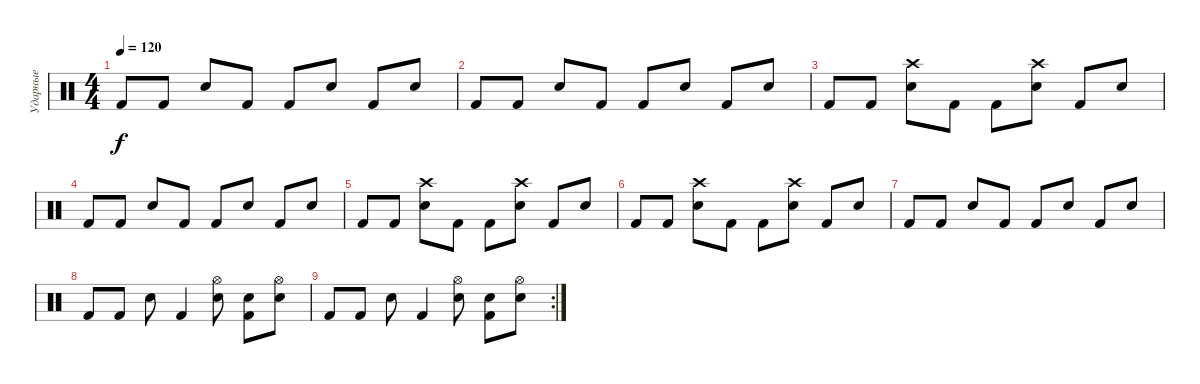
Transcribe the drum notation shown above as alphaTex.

\track ("Ударные" "Ударные") {instrument percussion}
\staff {score}
\articulation defaults
\ts (4 4)
\tempo 120
\clef neutral
\ks c "Kick (hit) 2".8{dy f} "Kick (hit) 2".8 "Snare (hit) 2".8 "Kick (hit) 2".8 "Kick (hit) 2".8 "Snare (hit) 2".8 "Kick (hit) 2".8 "Snare (hit) 2".8
|
"Kick (hit) 2".8 "Kick (hit) 2".8 "Snare (hit) 2".8 "Kick (hit) 2".8 "Kick (hit) 2".8 "Snare (hit) 2".8 "Kick (hit) 2".8 "Snare (hit) 2".8 |
"Kick (hit) 2".8 "Kick (hit) 2".8 ("Crash high (hit)" "Snare (hit) 2").8 "Kick (hit) 2".8 "Kick (hit) 2".8 ("Crash high (hit)" "Snare (hit) 2").8 "Kick (hit) 2".8 "Snare (hit) 2".8 |
"Kick (hit) 2".8 "Kick (hit) 2".8 "Snare (hit) 2".8 "Kick (hit) 2".8 "Kick (hit) 2".8 "Snare (hit) 2".8 "Kick (hit) 2".8 "Snare (hit) 2".8 |
"Kick (hit) 2".8 "Kick (hit) 2".8 ("Crash high (hit)" "Snare (hit) 2").8 "Kick (hit) 2".8 "Kick (hit) 2".8 ("Crash high (hit)" "Snare (hit) 2").8 "Kick (hit) 2".8 "Snare (hit) 2".8 |
"Kick (hit) 2".8 "Kick (hit) 2".8 ("Crash high (hit)" "Snare (hit) 2").8 "Kick (hit) 2".8 "Kick (hit) 2".8 ("Crash high (hit)" "Snare (hit) 2").8 "Kick (hit) 2".8 "Snare (hit) 2".8 |
"Kick (hit) 2".8 "Kick (hit) 2".8 "Snare (hit) 2".8 "Kick (hit) 2".8 "Kick (hit) 2".8 "Snare (hit) 2".8 "Kick (hit) 2".8 "Snare (hit) 2".8 |
"Kick (hit) 2".8 "Kick (hit) 2".8 "Snare (hit) 2".8 "Kick (hit) 2".4 ("Hi-Hat (open)" "Electric Snare (hit)").8 ("Kick (hit) 2" "Snare (hit) 2").8 ("Hi-Hat (open)" "Electric Snare (hit)").8 |
\rc 2 "Kick (hit) 2".8 "Kick (hit) 2".8 "Snare (hit) 2".8 "Kick (hit) 2".4
("Hi-Hat (open)" "Electric Snare (hit)").8 ("Kick (hit) 2" "Snare (hit) 2").8 ("Hi-Hat (open)" "Electric Snare (hit)").8
